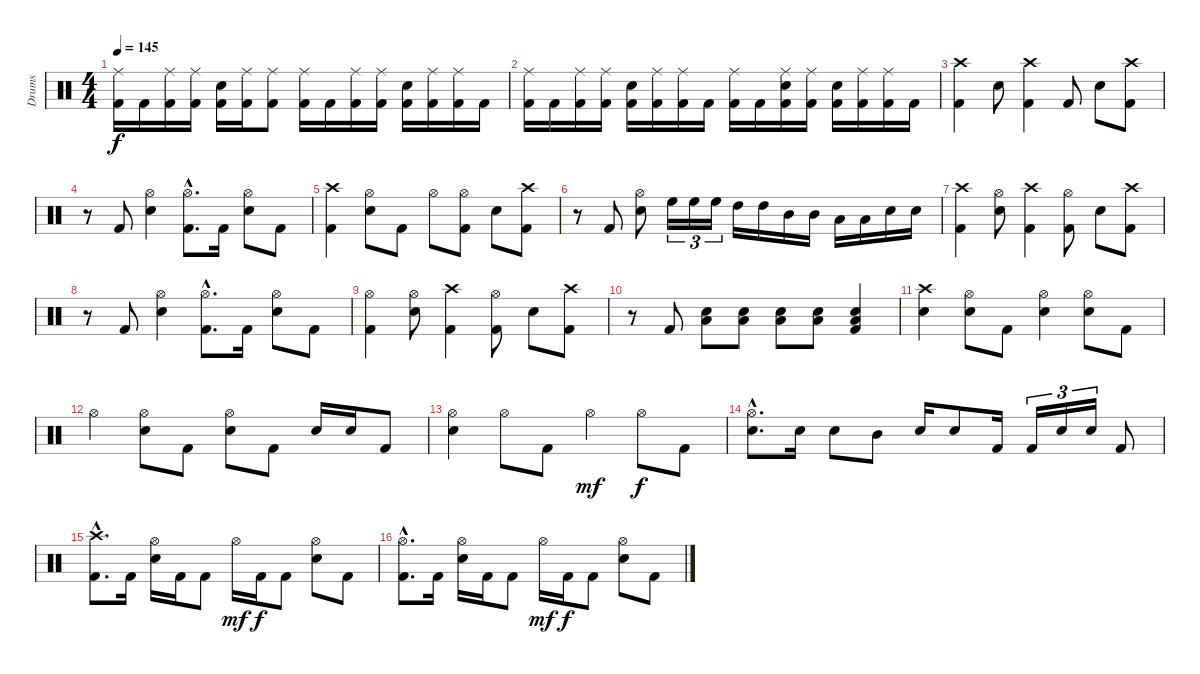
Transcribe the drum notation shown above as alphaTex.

\track ("Drums" "Drums") {instrument percussion}
\staff {score}
\articulation defaults
\ts (4 4)
\tempo 145
\clef neutral
\ks c
("Ride (middle)" "Kick (hit) 2").16{dy f} "Kick (hit) 2".16 ("Ride (middle)" "Kick (hit) 2").16 ("Ride (middle)" "Kick (hit) 2").16 ("Electric Snare (hit)" "Kick (hit) 2").16 ("Ride (middle)" "Kick (hit) 2").16 ("Ride (middle)" "Kick (hit) 2").8 ("Ride (middle)" "Kick (hit) 2").16 "Kick (hit) 2".16 ("Ride (middle)" "Kick (hit) 2").16 ("Ride (middle)" "Kick (hit) 2").16 ("Electric Snare (hit)" "Kick (hit) 2").16 ("Ride (middle)" "Kick (hit) 2").16 ("Ride (middle)" "Kick (hit) 2").16 "Kick (hit) 2".16 |
("Ride (middle)" "Kick (hit) 2").16 "Kick (hit) 2".16 ("Ride (middle)" "Kick (hit) 2").16 ("Ride (middle)" "Kick (hit) 2").16 ("Electric Snare (hit)" "Kick (hit) 2").16 ("Ride (middle)" "Kick (hit) 2").16 ("Ride (middle)" "Kick (hit) 2").16 "Kick (hit) 2".16 ("Ride (middle)" "Kick (hit) 2").16 "Kick (hit) 2".16 ("Ride (middle)" "Electric Snare (hit)" "Kick (hit) 2").16 ("Ride (middle)" "Kick (hit) 2").16 ("Electric Snare (hit)" "Kick (hit) 2").16 ("Ride (middle)" "Kick (hit) 2").16 ("Ride (middle)" "Kick (hit) 2").16 "Kick (hit) 2".16 |
("Crash high (hit)" "Kick (hit) 2").4 "Electric Snare (hit)".8 ("Crash high (hit)" "Kick (hit) 2").4 "Kick (hit) 2".8 "Electric Snare (hit)".8 ("Crash high (hit)" "Kick (hit) 2").8 |
r.8 "Kick (hit) 2".8 ("Hi-Hat (open)" "Electric Snare (hit)").4 ("Hi-Hat (open)"{hac} "Kick (hit) 2"{hac}).8{d} "Kick (hit) 2".16 ("Hi-Hat (open)" "Electric Snare (hit)").8 "Kick (hit) 2".8 |
("Crash high (hit)" "Kick (hit) 2").4 ("Hi-Hat (open)" "Electric Snare (hit)").8 "Kick (hit) 2".8 "Hi-Hat (open)".8 ("Hi-Hat (open)" "Kick (hit) 2").8 "Electric Snare (hit)".8 ("Crash high (hit)" "Kick (hit) 2").8 |
r.8 "Kick (hit) 2".8 ("Hi-Hat (open)" "Electric Snare (hit)").8 "High Floor Tom (hit)".16{tu (3 2)} "High Floor Tom (hit)".16{tu (3 2)} "High Floor Tom (hit)".16{tu (3 2)} "High Tom (hit)".16 "High Tom (hit)".16 "Mid Tom (hit)".16 "Mid Tom (hit)".16 "Low Tom (hit)".16 "Low Tom (hit)".16 "Electric Snare (hit)".16 "Electric Snare (hit)".16 |
("Crash high (hit)" "Kick (hit) 2").4 ("Hi-Hat (open)" "Electric Snare (hit)").8 ("Crash high (hit)" "Kick (hit) 2").4 ("Hi-Hat (open)" "Kick (hit) 2").8 "Electric Snare (hit)".8 ("Crash high (hit)" "Kick (hit) 2").8 |
r.8 "Kick (hit) 2".8 ("Hi-Hat (open)" "Electric Snare (hit)").4 ("Hi-Hat (open)"{hac} "Kick (hit) 2"{hac}).8{d} "Kick (hit) 2".16 ("Hi-Hat (open)" "Electric Snare (hit)").8 "Kick (hit) 2".8 |
("Hi-Hat (open)" "Kick (hit) 2").4 ("Hi-Hat (open)" "Electric Snare (hit)").8 ("Crash high (hit)" "Kick (hit) 2").4 ("Hi-Hat (open)" "Kick (hit) 2").8 "Electric Snare (hit)".8 ("Crash high (hit)" "Kick (hit) 2").8 |
r.8 "Kick (hit) 2".8 ("Electric Snare (hit)" "Low Floor Tom (hit)").8 ("Electric Snare (hit)" "Low Floor Tom (hit)").8 ("Electric Snare (hit)" "Low Floor Tom (hit)").8 ("Electric Snare (hit)" "Low Floor Tom (hit)").8 ("Electric Snare (hit)" "Low Floor Tom (hit)" "Kick (hit) 2").4 |
("Crash high (hit)" "Electric Snare (hit)").4 ("Hi-Hat (open)" "Electric Snare (hit)").8 "Kick (hit) 2".8 ("Hi-Hat (open)" "Electric Snare (hit)").4 ("Hi-Hat (open)" "Electric Snare (hit)").8 "Kick (hit) 2".8 |
"Hi-Hat (open)".4 ("Hi-Hat (open)" "Electric Snare (hit)").8 "Kick (hit) 2".8 ("Hi-Hat (open)" "Electric Snare (hit)").8 "Kick (hit) 2".8 "Electric Snare (hit)".16 "Electric Snare (hit)".16 "Kick (hit) 2".8 |
("Hi-Hat (open)" "Electric Snare (hit)").4 "Hi-Hat (open)".8 "Kick (hit) 2".8 "Hi-Hat (open)".4{dy mf} "Hi-Hat (open)".8{dy f} "Kick (hit) 2".8 |
("Hi-Hat (open)"{hac} "Electric Snare (hit)"{hac}).8{d} "Electric Snare (hit)".16 "Electric Snare (hit)".8 "Mid Tom (hit)".8 "Electric Snare (hit)".16 "Electric Snare (hit)".8 "Kick (hit) 2".16 "Kick (hit) 2".16{tu (3 2)} "Electric Snare (hit)".16{tu (3 2)} "Electric Snare (hit)".16{tu (3 2)} "Kick (hit) 2".8 |
("Crash high (hit)"{hac} "Kick (hit) 2"{hac}).8{d} "Kick (hit) 2".16 ("Hi-Hat (open)" "Electric Snare (hit)").16 "Kick (hit) 2".16 "Kick (hit) 2".8 "Hi-Hat (open)".16{dy mf} "Kick (hit) 2".16{dy f} "Kick (hit) 2".8 ("Hi-Hat (open)" "Electric Snare (hit)").8 "Kick (hit) 2".8 |
("Hi-Hat (open)"{hac} "Kick (hit) 2"{hac}).8{d} "Kick (hit) 2".16 ("Hi-Hat (open)" "Electric Snare (hit)").16 "Kick (hit) 2".16 "Kick (hit) 2".8 "Hi-Hat (open)".16{dy mf} "Kick (hit) 2".16{dy f} "Kick (hit) 2".8 ("Hi-Hat (open)" "Electric Snare (hit)").8 "Kick (hit) 2".8
